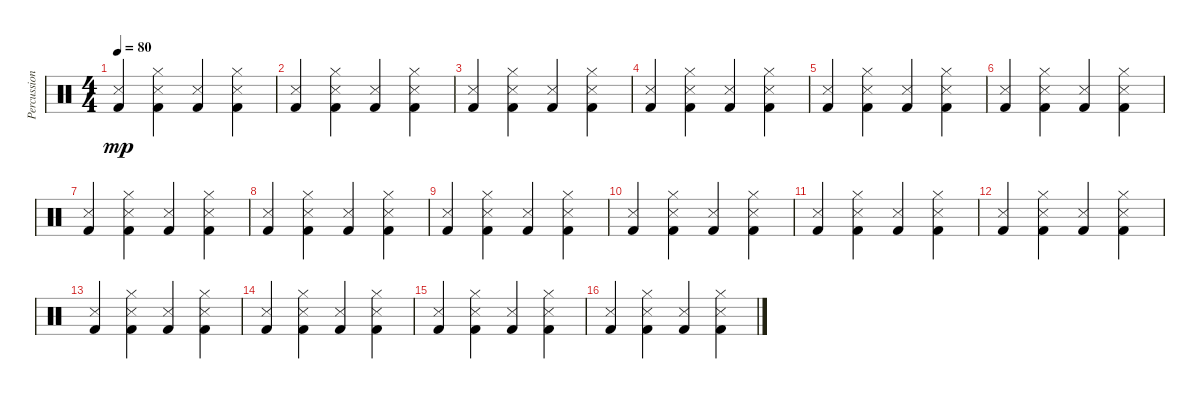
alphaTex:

\track ("Percussion" "Percussion") {instrument percussion}
\staff {score}
\articulation defaults
\ts (4 4)
\tempo 80
\clef neutral
\ks c
("Snare (side stick) 3" "Kick (hit) 2").4{dy mp} ("Snare (side stick) 3" "Hi-Hat (closed)" "Kick (hit) 2").4 ("Snare (side stick) 3" "Kick (hit) 2").4 ("Snare (side stick) 3" "Hi-Hat (closed)" "Kick (hit) 2").4 |
("Snare (side stick) 3" "Kick (hit) 2").4 ("Snare (side stick) 3" "Hi-Hat (closed)" "Kick (hit) 2").4 ("Snare (side stick) 3" "Kick (hit) 2").4 ("Snare (side stick) 3" "Hi-Hat (closed)" "Kick (hit) 2").4 |
("Snare (side stick) 3" "Kick (hit) 2").4 ("Snare (side stick) 3" "Hi-Hat (closed)" "Kick (hit) 2").4 ("Snare (side stick) 3" "Kick (hit) 2").4 ("Snare (side stick) 3" "Hi-Hat (closed)" "Kick (hit) 2").4 |
("Snare (side stick) 3" "Kick (hit) 2").4 ("Snare (side stick) 3" "Hi-Hat (closed)" "Kick (hit) 2").4 ("Snare (side stick) 3" "Kick (hit) 2").4 ("Snare (side stick) 3" "Hi-Hat (closed)" "Kick (hit) 2").4 |
("Snare (side stick) 3" "Kick (hit) 2").4 ("Snare (side stick) 3" "Hi-Hat (closed)" "Kick (hit) 2").4 ("Snare (side stick) 3" "Kick (hit) 2").4 ("Snare (side stick) 3" "Hi-Hat (closed)" "Kick (hit) 2").4 |
("Snare (side stick) 3" "Kick (hit) 2").4 ("Snare (side stick) 3" "Hi-Hat (closed)" "Kick (hit) 2").4 ("Snare (side stick) 3" "Kick (hit) 2").4 ("Snare (side stick) 3" "Hi-Hat (closed)" "Kick (hit) 2").4 |
("Snare (side stick) 3" "Kick (hit) 2").4 ("Snare (side stick) 3" "Hi-Hat (closed)" "Kick (hit) 2").4 ("Snare (side stick) 3" "Kick (hit) 2").4 ("Snare (side stick) 3" "Hi-Hat (closed)" "Kick (hit) 2").4 |
("Snare (side stick) 3" "Kick (hit) 2").4 ("Snare (side stick) 3" "Hi-Hat (closed)" "Kick (hit) 2").4 ("Snare (side stick) 3" "Kick (hit) 2").4 ("Snare (side stick) 3" "Hi-Hat (closed)" "Kick (hit) 2").4 |
("Snare (side stick) 3" "Kick (hit) 2").4 ("Snare (side stick) 3" "Hi-Hat (closed)" "Kick (hit) 2").4 ("Snare (side stick) 3" "Kick (hit) 2").4 ("Snare (side stick) 3" "Hi-Hat (closed)" "Kick (hit) 2").4 |
("Snare (side stick) 3" "Kick (hit) 2").4 ("Snare (side stick) 3" "Hi-Hat (closed)" "Kick (hit) 2").4 ("Snare (side stick) 3" "Kick (hit) 2").4 ("Snare (side stick) 3" "Hi-Hat (closed)" "Kick (hit) 2").4 |
("Snare (side stick) 3" "Kick (hit) 2").4 ("Snare (side stick) 3" "Hi-Hat (closed)" "Kick (hit) 2").4 ("Snare (side stick) 3" "Kick (hit) 2").4 ("Snare (side stick) 3" "Hi-Hat (closed)" "Kick (hit) 2").4 |
("Snare (side stick) 3" "Kick (hit) 2").4 ("Snare (side stick) 3" "Hi-Hat (closed)" "Kick (hit) 2").4 ("Snare (side stick) 3" "Kick (hit) 2").4 ("Snare (side stick) 3" "Hi-Hat (closed)" "Kick (hit) 2").4 |
("Snare (side stick) 3" "Kick (hit) 2").4 ("Snare (side stick) 3" "Hi-Hat (closed)" "Kick (hit) 2").4 ("Snare (side stick) 3" "Kick (hit) 2").4 ("Snare (side stick) 3" "Hi-Hat (closed)" "Kick (hit) 2").4 |
("Snare (side stick) 3" "Kick (hit) 2").4 ("Snare (side stick) 3" "Hi-Hat (closed)" "Kick (hit) 2").4 ("Snare (side stick) 3" "Kick (hit) 2").4 ("Snare (side stick) 3" "Hi-Hat (closed)" "Kick (hit) 2").4 |
("Snare (side stick) 3" "Kick (hit) 2").4 ("Snare (side stick) 3" "Hi-Hat (closed)" "Kick (hit) 2").4 ("Snare (side stick) 3" "Kick (hit) 2").4 ("Snare (side stick) 3" "Hi-Hat (closed)" "Kick (hit) 2").4 |
("Snare (side stick) 3" "Kick (hit) 2").4 ("Snare (side stick) 3" "Hi-Hat (closed)" "Kick (hit) 2").4 ("Snare (side stick) 3" "Kick (hit) 2").4 ("Snare (side stick) 3" "Hi-Hat (closed)" "Kick (hit) 2").4
